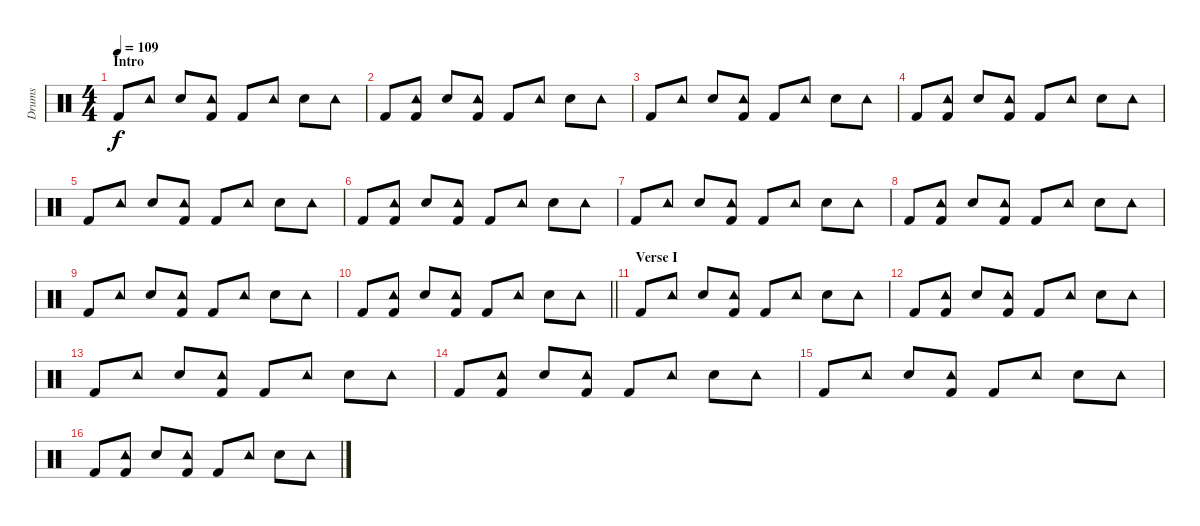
\track ("Drums" "Drums") {instrument percussion}
\staff {score}
\articulation defaults
\ts (4 4)
\section ("" "Intro")
\tempo 109
\clef neutral
\ks c "Kick (hit) 2".8{dy f} "Tambourine (hit)".8 "Snare (hit) 2".8
("Tambourine (hit)" "Kick (hit) 2").8 "Kick (hit) 2".8 "Tambourine (hit)".8 "Snare (hit) 2".8 "Tambourine (hit)".8 |
"Kick (hit) 2".8 ("Tambourine (hit)" "Kick (hit) 2").8 "Snare (hit) 2".8 ("Tambourine (hit)" "Kick (hit) 2").8 "Kick (hit) 2".8 "Tambourine (hit)".8 "Snare (hit) 2".8 "Tambourine (hit)".8 |
"Kick (hit) 2".8 "Tambourine (hit)".8 "Snare (hit) 2".8 ("Tambourine (hit)" "Kick (hit) 2").8 "Kick (hit) 2".8 "Tambourine (hit)".8 "Snare (hit) 2".8 "Tambourine (hit)".8 |
"Kick (hit) 2".8 ("Tambourine (hit)" "Kick (hit) 2").8 "Snare (hit) 2".8 ("Tambourine (hit)" "Kick (hit) 2").8 "Kick (hit) 2".8 "Tambourine (hit)".8 "Snare (hit) 2".8 "Tambourine (hit)".8 |
"Kick (hit) 2".8 "Tambourine (hit)".8 "Snare (hit) 2".8 ("Tambourine (hit)" "Kick (hit) 2").8 "Kick (hit) 2".8 "Tambourine (hit)".8 "Snare (hit) 2".8 "Tambourine (hit)".8 |
"Kick (hit) 2".8 ("Tambourine (hit)" "Kick (hit) 2").8 "Snare (hit) 2".8 ("Tambourine (hit)" "Kick (hit) 2").8 "Kick (hit) 2".8 "Tambourine (hit)".8 "Snare (hit) 2".8 "Tambourine (hit)".8 |
"Kick (hit) 2".8 "Tambourine (hit)".8 "Snare (hit) 2".8 ("Tambourine (hit)" "Kick (hit) 2").8 "Kick (hit) 2".8 "Tambourine (hit)".8 "Snare (hit) 2".8 "Tambourine (hit)".8 |
"Kick (hit) 2".8 ("Tambourine (hit)" "Kick (hit) 2").8 "Snare (hit) 2".8 ("Tambourine (hit)" "Kick (hit) 2").8 "Kick (hit) 2".8 "Tambourine (hit)".8 "Snare (hit) 2".8 "Tambourine (hit)".8 |
"Kick (hit) 2".8 "Tambourine (hit)".8 "Snare (hit) 2".8 ("Tambourine (hit)" "Kick (hit) 2").8 "Kick (hit) 2".8 "Tambourine (hit)".8 "Snare (hit) 2".8 "Tambourine (hit)".8 |
\barLineRight lightlight "Kick (hit) 2".8
("Tambourine (hit)" "Kick (hit) 2").8 "Snare (hit) 2".8 ("Tambourine (hit)" "Kick (hit) 2").8 "Kick (hit) 2".8 "Tambourine (hit)".8 "Snare (hit) 2".8 "Tambourine (hit)".8 |
\section ("" "Verse I")
"Kick (hit) 2".8 "Tambourine (hit)".8 "Snare (hit) 2".8 ("Tambourine (hit)" "Kick (hit) 2").8 "Kick (hit) 2".8 "Tambourine (hit)".8 "Snare (hit) 2".8 "Tambourine (hit)".8 |
"Kick (hit) 2".8 ("Tambourine (hit)" "Kick (hit) 2").8 "Snare (hit) 2".8 ("Tambourine (hit)" "Kick (hit) 2").8 "Kick (hit) 2".8 "Tambourine (hit)".8 "Snare (hit) 2".8 "Tambourine (hit)".8 |
"Kick (hit) 2".8 "Tambourine (hit)".8 "Snare (hit) 2".8 ("Tambourine (hit)" "Kick (hit) 2").8 "Kick (hit) 2".8 "Tambourine (hit)".8 "Snare (hit) 2".8 "Tambourine (hit)".8 |
"Kick (hit) 2".8 ("Tambourine (hit)" "Kick (hit) 2").8 "Snare (hit) 2".8 ("Tambourine (hit)" "Kick (hit) 2").8 "Kick (hit) 2".8 "Tambourine (hit)".8 "Snare (hit) 2".8 "Tambourine (hit)".8 |
"Kick (hit) 2".8 "Tambourine (hit)".8 "Snare (hit) 2".8 ("Tambourine (hit)" "Kick (hit) 2").8 "Kick (hit) 2".8 "Tambourine (hit)".8 "Snare (hit) 2".8 "Tambourine (hit)".8 |
"Kick (hit) 2".8 ("Tambourine (hit)" "Kick (hit) 2").8 "Snare (hit) 2".8 ("Tambourine (hit)" "Kick (hit) 2").8 "Kick (hit) 2".8 "Tambourine (hit)".8 "Snare (hit) 2".8 "Tambourine (hit)".8
